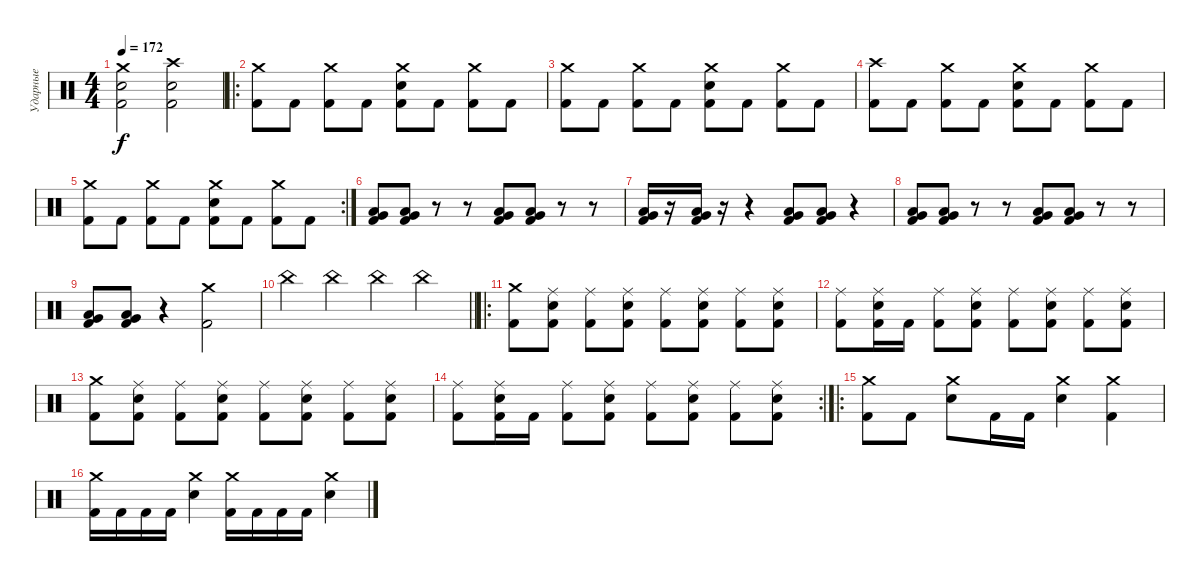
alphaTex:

\track ("Ударные" "Ударные") {instrument percussion}
\staff {score}
\articulation defaults
\ts (4 4)
\tempo 172
\clef neutral
\ks c
("Crash medium (hit)" "Electric Snare (hit)" "Kick (hit) 2").2{dy f} ("Crash high (hit)" "Electric Snare (hit)" "Kick (hit) 2").2 |
\ro
("Crash medium (hit)" "Kick (hit) 2").8 "Kick (hit) 2".8 ("Crash medium (hit)" "Kick (hit) 2").8 "Kick (hit) 2".8 ("Crash medium (hit)" "Electric Snare (hit)" "Kick (hit) 2").8 "Kick (hit) 2".8 ("Crash medium (hit)" "Kick (hit) 2").8 "Kick (hit) 2".8 |
("Crash medium (hit)" "Kick (hit) 2").8 "Kick (hit) 2".8 ("Crash medium (hit)" "Kick (hit) 2").8 "Kick (hit) 2".8 ("Crash medium (hit)" "Electric Snare (hit)" "Kick (hit) 2").8 "Kick (hit) 2".8 ("Crash medium (hit)" "Kick (hit) 2").8 "Kick (hit) 2".8 |
("Crash high (hit)" "Kick (hit) 2").8 "Kick (hit) 2".8 ("Crash medium (hit)" "Kick (hit) 2").8 "Kick (hit) 2".8 ("Crash medium (hit)" "Electric Snare (hit)" "Kick (hit) 2").8 "Kick (hit) 2".8 ("Crash medium (hit)" "Kick (hit) 2").8 "Kick (hit) 2".8 |
\rc 2
("Crash medium (hit)" "Kick (hit) 2").8 "Kick (hit) 2".8 ("Crash medium (hit)" "Kick (hit) 2").8 "Kick (hit) 2".8 ("Crash medium (hit)" "Electric Snare (hit)" "Kick (hit) 2").8 "Kick (hit) 2".8 ("Crash medium (hit)" "Kick (hit) 2").8 "Kick (hit) 2".8 |
("Very Low Tom (hit)" "Low Floor Tom (hit)" "Kick (hit) 2").8 ("Very Low Tom (hit)" "Low Floor Tom (hit)" "Kick (hit) 2").8 r.8 r.8 ("Very Low Tom (hit)" "Low Floor Tom (hit)" "Kick (hit) 2").8 ("Very Low Tom (hit)" "Low Floor Tom (hit)" "Kick (hit) 2").8 r.8 r.8 |
("Very Low Tom (hit)" "Low Floor Tom (hit)" "Kick (hit) 2").16 r.16 ("Very Low Tom (hit)" "Low Floor Tom (hit)" "Kick (hit) 2").16 r.16 r.4 ("Very Low Tom (hit)" "Low Floor Tom (hit)" "Kick (hit) 2").8 ("Very Low Tom (hit)" "Low Floor Tom (hit)" "Kick (hit) 2").8 r.4 |
("Low Tom (hit)" "Very Low Tom (hit)" "Kick (hit) 2").8 ("Low Tom (hit)" "Very Low Tom (hit)" "Kick (hit) 2").8 r.8 r.8 ("Low Tom (hit)" "Very Low Tom (hit)" "Kick (hit) 2").8 ("Low Tom (hit)" "Very Low Tom (hit)" "Kick (hit) 2").8 r.8 r.8 |
("Low Tom (hit)" "Very Low Tom (hit)" "Kick (hit) 2").8 ("Low Tom (hit)" "Very Low Tom (hit)" "Kick (hit) 2").8 r.4 ("Crash medium (hit)" "Kick (hit) 2").2 |
\barLineRight lightlight "China (hit)".4 "China (hit)".4 "China (hit)".4 "China (hit)".4
|
\ro
("Crash medium (hit)" "Kick (hit) 2").8 ("Ride (middle)" "Electric Snare (hit)" "Kick (hit) 2").8 ("Ride (middle)" "Kick (hit) 2").8 ("Ride (middle)" "Electric Snare (hit)" "Kick (hit) 2").8 ("Ride (middle)" "Kick (hit) 2").8 ("Ride (middle)" "Electric Snare (hit)" "Kick (hit) 2").8 ("Ride (middle)" "Kick (hit) 2").8 ("Ride (middle)" "Electric Snare (hit)" "Kick (hit) 2").8 |
("Ride (middle)" "Kick (hit) 2").8 ("Ride (middle)" "Electric Snare (hit)" "Kick (hit) 2").16 "Kick (hit) 2".16 ("Ride (middle)" "Kick (hit) 2").8 ("Ride (middle)" "Electric Snare (hit)" "Kick (hit) 2").8 ("Ride (middle)" "Kick (hit) 2").8 ("Ride (middle)" "Electric Snare (hit)" "Kick (hit) 2").8 ("Ride (middle)" "Kick (hit) 2").8 ("Ride (middle)" "Electric Snare (hit)" "Kick (hit) 2").8 |
("Crash medium (hit)" "Kick (hit) 2").8 ("Ride (middle)" "Electric Snare (hit)" "Kick (hit) 2").8 ("Ride (middle)" "Kick (hit) 2").8 ("Ride (middle)" "Electric Snare (hit)" "Kick (hit) 2").8 ("Ride (middle)" "Kick (hit) 2").8 ("Ride (middle)" "Electric Snare (hit)" "Kick (hit) 2").8 ("Ride (middle)" "Kick (hit) 2").8 ("Ride (middle)" "Electric Snare (hit)" "Kick (hit) 2").8 |
\rc 2
("Ride (middle)" "Kick (hit) 2").8 ("Ride (middle)" "Electric Snare (hit)" "Kick (hit) 2").16 "Kick (hit) 2".16 ("Ride (middle)" "Kick (hit) 2").8 ("Ride (middle)" "Electric Snare (hit)" "Kick (hit) 2").8 ("Ride (middle)" "Kick (hit) 2").8 ("Ride (middle)" "Electric Snare (hit)" "Kick (hit) 2").8 ("Ride (middle)" "Kick (hit) 2").8 ("Ride (middle)" "Electric Snare (hit)" "Kick (hit) 2").8 |
\ro
("Crash medium (hit)" "Kick (hit) 2").8 "Kick (hit) 2".8 ("Crash medium (hit)" "Electric Snare (hit)").8 "Kick (hit) 2".16 "Kick (hit) 2".16 ("Crash medium (hit)" "Electric Snare (hit)").4 ("Crash medium (hit)" "Kick (hit) 2").4 |
("Crash medium (hit)" "Kick (hit) 2").16 "Kick (hit) 2".16 "Kick (hit) 2".16 "Kick (hit) 2".16 ("Crash medium (hit)" "Electric Snare (hit)").4 ("Crash medium (hit)" "Kick (hit) 2").16 "Kick (hit) 2".16 "Kick (hit) 2".16 "Kick (hit) 2".16 ("Crash medium (hit)" "Electric Snare (hit)").4
